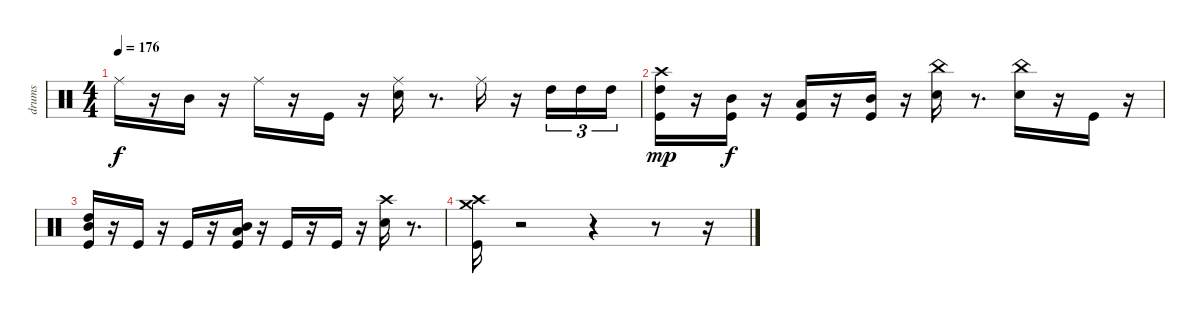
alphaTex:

\track ("drums" "drums") {instrument percussion}
\staff {score}
\articulation defaults
\ts (4 4)
\tempo 176
\clef neutral
\ks c "Ride (middle)".16{dy f}
r.16 "Mid Tom (hit)".16 r.16 "Ride (middle)".16 r.16 "Kick (hit)".16 r.16 ("Snare (hit) 2" "Ride (middle)").16 r.8{d} "Ride (middle)".16 r.16 "High Tom (hit)".16{tu (3 2)} "High Tom (hit)".16{tu (3 2)} "High Tom (hit)".16{tu (3 2)} |
("Kick (hit)" "High Tom (hit)" "Crash high (hit)").16{dy mp} r.16 ("Kick (hit)" "Mid Tom (hit)").16{dy f} r.16 ("Kick (hit)" "Low Tom (hit)").16 r.16 ("Kick (hit)" "Mid Tom (hit)").16 r.16 ("Snare (hit) 2" "China (hit)").16 r.8{d} ("Snare (hit) 2" "China (hit)").16 r.16 "Kick (hit)".16 r.16 |
("Kick (hit)" "Mid Tom (hit)" "High Tom (hit)").16 r.16 "Kick (hit)".16 r.16 "Kick (hit)".16 r.16 ("Kick (hit)" "Low Tom (hit)" "Mid Tom (hit)").16 r.16 "Kick (hit)".16 r.16 "Kick (hit)".16 r.16 ("Snare (hit) 2" "Crash high (hit)").16 r.8{d} |
("Kick (hit)" "Crash high (hit)" "Crash medium (hit)").16 r.2 r.4 r.8 r.16
